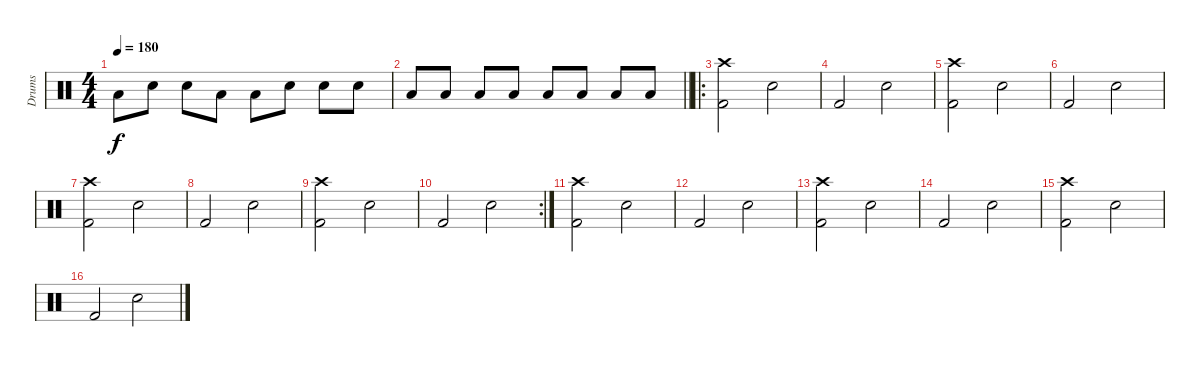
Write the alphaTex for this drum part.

\track ("Drums" "Drums") {instrument percussion}
\staff {score}
\articulation defaults
\ts (4 4)
\tempo 180
\clef neutral
\ks c "Low Floor Tom (hit)".8{dy f} "Electric Snare (hit)".8 "Electric Snare (hit)".8 "Low Floor Tom (hit)".8 "Low Floor Tom (hit)".8 "Electric Snare (hit)".8 "Electric Snare (hit)".8 "Electric Snare (hit)".8
|
\barLineRight lightlight "Low Floor Tom (hit)".8 "Low Floor Tom (hit)".8 "Low Floor Tom (hit)".8 "Low Floor Tom (hit)".8 "Low Floor Tom (hit)".8 "Low Floor Tom (hit)".8 "Low Floor Tom (hit)".8 "Low Floor Tom (hit)".8
|
\ro
("Kick (hit) 2" "Crash high (hit)").2 "Electric Snare (hit)".2 |
"Kick (hit) 2".2 "Electric Snare (hit)".2 |
("Kick (hit) 2" "Crash high (hit)").2 "Electric Snare (hit)".2 |
"Kick (hit) 2".2 "Electric Snare (hit)".2 |
("Kick (hit) 2" "Crash high (hit)").2 "Electric Snare (hit)".2 |
"Kick (hit) 2".2 "Electric Snare (hit)".2 |
("Kick (hit) 2" "Crash high (hit)").2 "Electric Snare (hit)".2 |
\rc 2 "Kick (hit) 2".2 "Electric Snare (hit)".2
|
("Kick (hit) 2" "Crash high (hit)").2 "Electric Snare (hit)".2 |
"Kick (hit) 2".2 "Electric Snare (hit)".2 |
("Kick (hit) 2" "Crash high (hit)").2 "Electric Snare (hit)".2 |
"Kick (hit) 2".2 "Electric Snare (hit)".2 |
("Kick (hit) 2" "Crash high (hit)").2 "Electric Snare (hit)".2 |
"Kick (hit) 2".2 "Electric Snare (hit)".2
